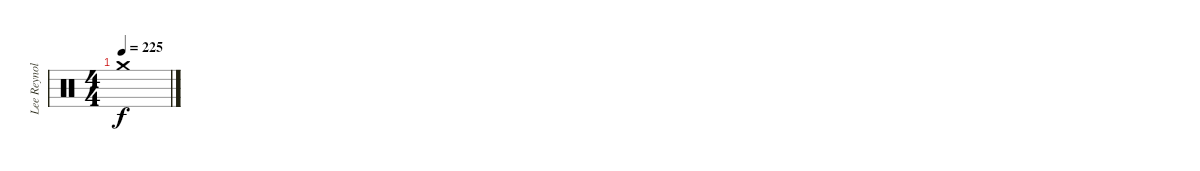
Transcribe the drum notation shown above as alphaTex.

\track ("Lee Reynolds" "Lee Reynol") {instrument percussion}
\staff {score}
\articulation defaults
\ts (4 4)
\tempo 225
\clef neutral
\ks c "Crash medium (hit)".1{dy f}
